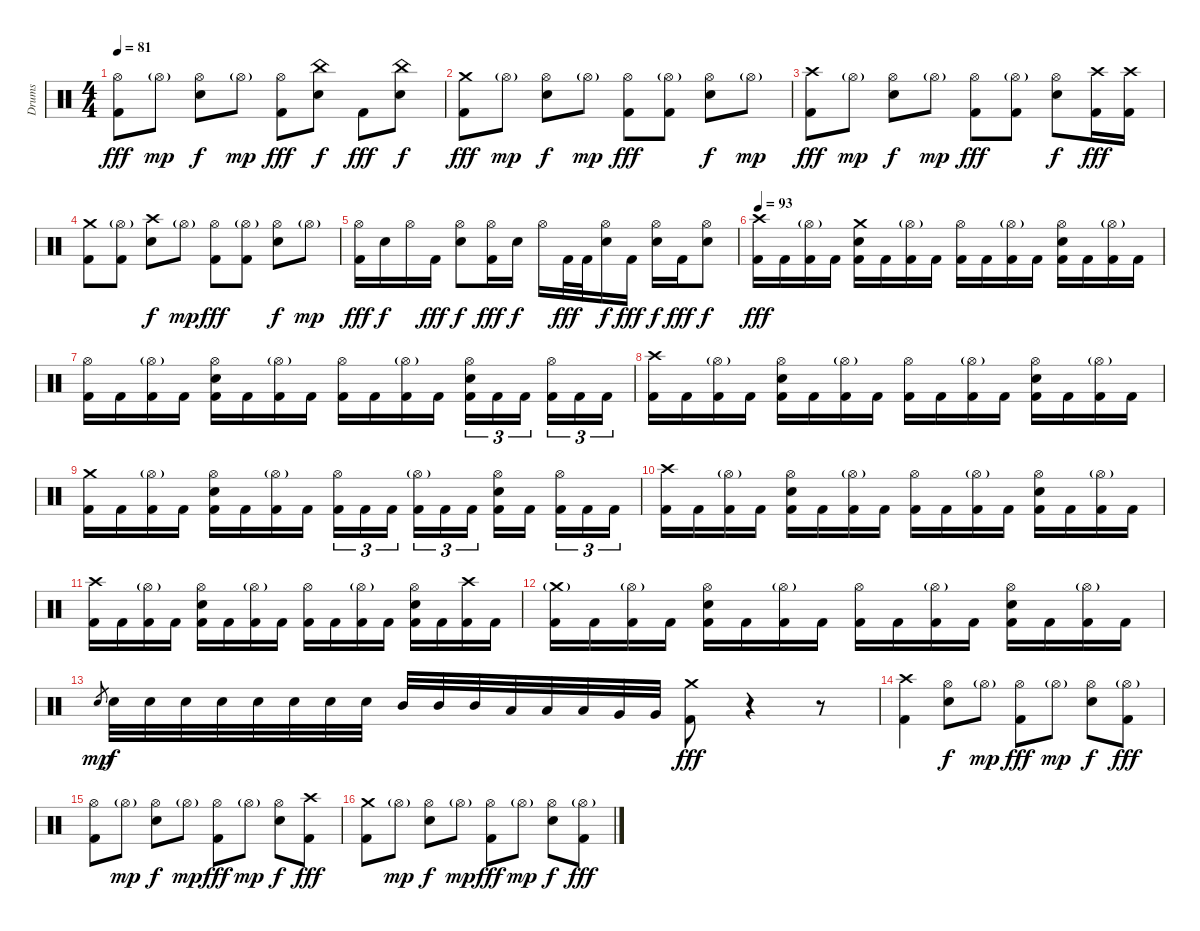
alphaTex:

\track ("Drums" "Drums") {instrument percussion}
\staff {score}
\articulation defaults
\ts (4 4)
\tempo 81
\clef neutral
\ks c
("Hi-Hat (open)" "Kick (hit) 2").8{dy fff} "Hi-Hat (open)"{g}.8{dy mp} ("Hi-Hat (open)" "Electric Snare (hit)").8{dy f} "Hi-Hat (open)"{g}.8{dy mp} ("Hi-Hat (open)" "Kick (hit) 2").8{dy fff} ("China (hit)" "Electric Snare (hit)").8{dy f} "Kick (hit) 2".8{dy fff} ("China (hit)" "Electric Snare (hit)").8{dy f} |
("Crash medium (hit)" "Kick (hit) 2").8{dy fff} "Hi-Hat (open)"{g}.8{dy mp} ("Hi-Hat (open)" "Electric Snare (hit)").8{dy f} "Hi-Hat (open)"{g}.8{dy mp} ("Hi-Hat (open)" "Kick (hit) 2").8{dy fff} ("Hi-Hat (open)"{g} "Kick (hit) 2").8 ("Hi-Hat (open)" "Electric Snare (hit)").8{dy f} "Hi-Hat (open)"{g}.8{dy mp} |
("Crash high (hit)" "Kick (hit) 2").8{dy fff} "Hi-Hat (open)"{g}.8{dy mp} ("Hi-Hat (open)" "Electric Snare (hit)").8{dy f} "Hi-Hat (open)"{g}.8{dy mp} ("Hi-Hat (open)" "Kick (hit) 2").8{dy fff} ("Hi-Hat (open)"{g} "Kick (hit) 2").8 ("Hi-Hat (open)" "Electric Snare (hit)").8{dy f} ("Crash high (hit)" "Kick (hit) 2").16{dy fff} ("Crash high (hit)" "Kick (hit) 2").16 |
("Crash medium (hit)" "Kick (hit) 2").8 ("Hi-Hat (open)"{g} "Kick (hit) 2").8 ("Crash high (hit)" "Electric Snare (hit)").8{dy f} "Hi-Hat (open)"{g}.8{dy mp} ("Hi-Hat (open)" "Kick (hit) 2").8{dy fff} ("Hi-Hat (open)"{g} "Kick (hit) 2").8 ("Hi-Hat (open)" "Electric Snare (hit)").8{dy f} "Hi-Hat (open)"{g}.8{dy mp} |
("Hi-Hat (open)" "Kick (hit) 2").16{dy fff} "Electric Snare (hit)".16{dy f} "Hi-Hat (open)".16 "Kick (hit) 2".16{dy fff} ("Hi-Hat (open)" "Electric Snare (hit)").8{dy f} ("Hi-Hat (open)" "Kick (hit) 2").16{dy fff} "Electric Snare (hit)".16{dy f} "Hi-Hat (open)".16 "Kick (hit) 2".32{dy fff} "Kick (hit) 2".32 ("Hi-Hat (open)" "Electric Snare (hit)").16{dy f} "Kick (hit) 2".16{dy fff} ("Hi-Hat (open)" "Electric Snare (hit)").16{dy f} "Kick (hit) 2".16{dy fff} ("Hi-Hat (open)" "Electric Snare (hit)").8{dy f} |
\tempo 93
("Crash high (hit)" "Kick (hit) 2").16{dy fff} "Kick (hit) 2".16 ("Hi-Hat (open)"{g} "Kick (hit) 2").16 "Kick (hit) 2".16 ("Crash medium (hit)" "Electric Snare (hit)" "Kick (hit) 2").16 "Kick (hit) 2".16 ("Hi-Hat (open)"{g} "Kick (hit) 2").16 "Kick (hit) 2".16 ("Hi-Hat (open)" "Kick (hit) 2").16 "Kick (hit) 2".16 ("Hi-Hat (open)"{g} "Kick (hit) 2").16 "Kick (hit) 2".16 ("Hi-Hat (open)" "Electric Snare (hit)" "Kick (hit) 2").16 "Kick (hit) 2".16 ("Hi-Hat (open)"{g} "Kick (hit) 2").16 "Kick (hit) 2".16 |
("Hi-Hat (open)" "Kick (hit) 2").16 "Kick (hit) 2".16 ("Hi-Hat (open)"{g} "Kick (hit) 2").16 "Kick (hit) 2".16 ("Hi-Hat (open)" "Electric Snare (hit)" "Kick (hit) 2").16 "Kick (hit) 2".16 ("Hi-Hat (open)"{g} "Kick (hit) 2").16 "Kick (hit) 2".16 ("Hi-Hat (open)" "Kick (hit) 2").16 "Kick (hit) 2".16 ("Hi-Hat (open)"{g} "Kick (hit) 2").16 "Kick (hit) 2".16 ("Hi-Hat (open)" "Electric Snare (hit)" "Kick (hit) 2").16{tu (3 2)} "Kick (hit) 2".16{tu (3 2)} "Kick (hit) 2".16{tu (3 2)} ("Hi-Hat (open)" "Kick (hit) 2").16{tu (3 2)} "Kick (hit) 2".16{tu (3 2)} "Kick (hit) 2".16{tu (3 2)} |
("Crash high (hit)" "Kick (hit) 2").16 "Kick (hit) 2".16 ("Hi-Hat (open)"{g} "Kick (hit) 2").16 "Kick (hit) 2".16 ("Hi-Hat (open)" "Electric Snare (hit)" "Kick (hit) 2").16 "Kick (hit) 2".16 ("Hi-Hat (open)"{g} "Kick (hit) 2").16 "Kick (hit) 2".16 ("Hi-Hat (open)" "Kick (hit) 2").16 "Kick (hit) 2".16 ("Hi-Hat (open)"{g} "Kick (hit) 2").16 "Kick (hit) 2".16 ("Hi-Hat (open)" "Electric Snare (hit)" "Kick (hit) 2").16 "Kick (hit) 2".16 ("Hi-Hat (open)"{g} "Kick (hit) 2").16 "Kick (hit) 2".16 |
("Crash medium (hit)" "Kick (hit) 2").16 "Kick (hit) 2".16 ("Hi-Hat (open)"{g} "Kick (hit) 2").16 "Kick (hit) 2".16 ("Hi-Hat (open)" "Electric Snare (hit)" "Kick (hit) 2").16 "Kick (hit) 2".16 ("Hi-Hat (open)"{g} "Kick (hit) 2").16 "Kick (hit) 2".16 ("Hi-Hat (open)" "Kick (hit) 2").16{tu (3 2)} "Kick (hit) 2".16{tu (3 2)} "Kick (hit) 2".16{tu (3 2)} ("Hi-Hat (open)"{g} "Kick (hit) 2").16{tu (3 2)} "Kick (hit) 2".16{tu (3 2)} "Kick (hit) 2".16{tu (3 2)} ("Hi-Hat (open)" "Electric Snare (hit)" "Kick (hit) 2").16 "Kick (hit) 2".16 ("Hi-Hat (open)" "Kick (hit) 2").16{tu (3 2)} "Kick (hit) 2".16{tu (3 2)} "Kick (hit) 2".16{tu (3 2)} |
("Crash high (hit)" "Kick (hit) 2").16 "Kick (hit) 2".16 ("Hi-Hat (open)"{g} "Kick (hit) 2").16 "Kick (hit) 2".16 ("Hi-Hat (open)" "Electric Snare (hit)" "Kick (hit) 2").16 "Kick (hit) 2".16 ("Hi-Hat (open)"{g} "Kick (hit) 2").16 "Kick (hit) 2".16 ("Hi-Hat (open)" "Kick (hit) 2").16 "Kick (hit) 2".16 ("Hi-Hat (open)"{g} "Kick (hit) 2").16 "Kick (hit) 2".16 ("Hi-Hat (open)" "Electric Snare (hit)" "Kick (hit) 2").16 "Kick (hit) 2".16 ("Hi-Hat (open)"{g} "Kick (hit) 2").16 "Kick (hit) 2".16 |
("Crash high (hit)" "Kick (hit) 2").16 "Kick (hit) 2".16 ("Hi-Hat (open)"{g} "Kick (hit) 2").16 "Kick (hit) 2".16 ("Hi-Hat (open)" "Electric Snare (hit)" "Kick (hit) 2").16 "Kick (hit) 2".16 ("Hi-Hat (open)"{g} "Kick (hit) 2").16 "Kick (hit) 2".16 ("Hi-Hat (open)" "Kick (hit) 2").16 "Kick (hit) 2".16 ("Hi-Hat (open)"{g} "Kick (hit) 2").16 "Kick (hit) 2".16 ("Hi-Hat (open)" "Electric Snare (hit)" "Kick (hit) 2").16 "Kick (hit) 2".16 ("Crash high (hit)" "Kick (hit) 2").16 "Kick (hit) 2".16 |
("Crash medium (hit)"{g} "Kick (hit) 2").16 "Kick (hit) 2".16 ("Hi-Hat (open)"{g} "Kick (hit) 2").16 "Kick (hit) 2".16 ("Hi-Hat (open)" "Electric Snare (hit)" "Kick (hit) 2").16 "Kick (hit) 2".16 ("Hi-Hat (open)"{g} "Kick (hit) 2").16 "Kick (hit) 2".16 ("Hi-Hat (open)" "Kick (hit) 2").16 "Kick (hit) 2".16 ("Hi-Hat (open)"{g} "Kick (hit) 2").16 "Kick (hit) 2".16 ("Hi-Hat (open)" "Electric Snare (hit)" "Kick (hit) 2").16 "Kick (hit) 2".16 ("Hi-Hat (open)"{g} "Kick (hit) 2").16 "Kick (hit) 2".16 |
"Electric Snare (hit)".8{gr dy mp} "Electric Snare (hit)".32{dy f} "Electric Snare (hit)".32 "Electric Snare (hit)".32 "Electric Snare (hit)".32 "Electric Snare (hit)".32 "Electric Snare (hit)".32 "Electric Snare (hit)".32 "Electric Snare (hit)".32 "Mid Tom (hit)".32 "Mid Tom (hit)".32 "Mid Tom (hit)".32 "Low Tom (hit)".32 "Low Tom (hit)".32 "Low Tom (hit)".32 "Very Low Tom (hit)".32 "Very Low Tom (hit)".32 ("Crash medium (hit)" "Kick (hit) 2").8{dy fff} r.4{volume 0} r.8 |
("Crash high (hit)" "Kick (hit) 2").4{volume 13} ("Hi-Hat (open)" "Electric Snare (hit)").8{dy f} "Hi-Hat (open)"{g}.8{dy mp} ("Hi-Hat (open)" "Kick (hit) 2").8{dy fff} "Hi-Hat (open)"{g}.8{dy mp} ("Hi-Hat (open)" "Electric Snare (hit)").8{dy f} ("Hi-Hat (open)"{g} "Kick (hit) 2").8{dy fff} |
("Hi-Hat (open)" "Kick (hit) 2").8 "Hi-Hat (open)"{g}.8{dy mp} ("Hi-Hat (open)" "Electric Snare (hit)").8{dy f} "Hi-Hat (open)"{g}.8{dy mp} ("Hi-Hat (open)" "Kick (hit) 2").8{dy fff} "Hi-Hat (open)"{g}.8{dy mp} ("Hi-Hat (open)" "Electric Snare (hit)").8{dy f} ("Crash high (hit)" "Kick (hit) 2").8{dy fff} |
("Crash medium (hit)" "Kick (hit) 2").8 "Hi-Hat (open)"{g}.8{dy mp} ("Hi-Hat (open)" "Electric Snare (hit)").8{dy f} "Hi-Hat (open)"{g}.8{dy mp} ("Hi-Hat (open)" "Kick (hit) 2").8{dy fff} "Hi-Hat (open)"{g}.8{dy mp} ("Hi-Hat (open)" "Electric Snare (hit)").8{dy f} ("Hi-Hat (open)"{g} "Kick (hit) 2").8{dy fff}
